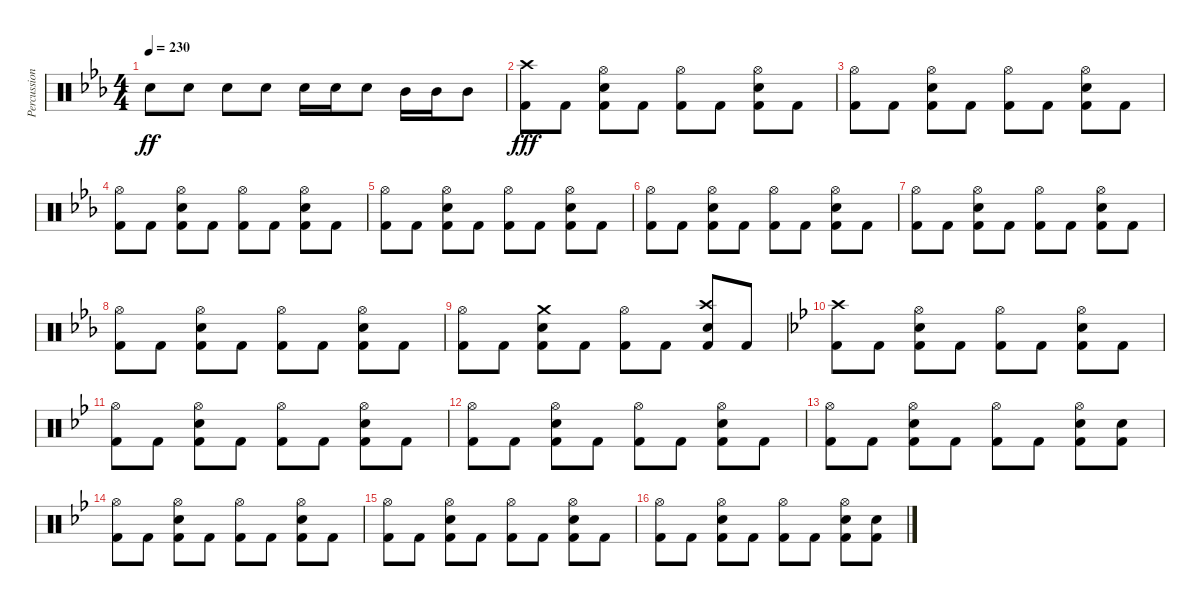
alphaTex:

\track ("Percussion" "Percussion") {instrument percussion}
\staff {score}
\articulation defaults
\ts (4 4)
\tempo 230
\clef neutral
\ks cminor "Electric Snare (hit)".8{dy ff} "Electric Snare (hit)".8 "Electric Snare (hit)".8 "Electric Snare (hit)".8 "Electric Snare (hit)".16 "Electric Snare (hit)".16 "Electric Snare (hit)".8 "Mid Tom (hit)".16 "Mid Tom (hit)".16 "Mid Tom (hit)".8
|
("Crash high (hit)" "Kick (hit) 2").8{dy fff} "Kick (hit) 2".8 ("Hi-Hat (open)" "Electric Snare (hit)" "Kick (hit) 2").8 "Kick (hit) 2".8 ("Hi-Hat (open)" "Kick (hit) 2").8 "Kick (hit) 2".8 ("Hi-Hat (open)" "Electric Snare (hit)" "Kick (hit) 2").8 "Kick (hit) 2".8 |
("Hi-Hat (open)" "Kick (hit) 2").8 "Kick (hit) 2".8 ("Hi-Hat (open)" "Electric Snare (hit)" "Kick (hit) 2").8 "Kick (hit) 2".8 ("Hi-Hat (open)" "Kick (hit) 2").8 "Kick (hit) 2".8 ("Hi-Hat (open)" "Electric Snare (hit)" "Kick (hit) 2").8 "Kick (hit) 2".8 |
("Hi-Hat (open)" "Kick (hit) 2").8 "Kick (hit) 2".8 ("Hi-Hat (open)" "Electric Snare (hit)" "Kick (hit) 2").8 "Kick (hit) 2".8 ("Hi-Hat (open)" "Kick (hit) 2").8 "Kick (hit) 2".8 ("Hi-Hat (open)" "Electric Snare (hit)" "Kick (hit) 2").8 "Kick (hit) 2".8 |
("Hi-Hat (open)" "Kick (hit) 2").8 "Kick (hit) 2".8 ("Hi-Hat (open)" "Electric Snare (hit)" "Kick (hit) 2").8 "Kick (hit) 2".8 ("Hi-Hat (open)" "Kick (hit) 2").8 "Kick (hit) 2".8 ("Hi-Hat (open)" "Electric Snare (hit)" "Kick (hit) 2").8 "Kick (hit) 2".8 |
("Hi-Hat (open)" "Kick (hit) 2").8 "Kick (hit) 2".8 ("Hi-Hat (open)" "Electric Snare (hit)" "Kick (hit) 2").8 "Kick (hit) 2".8 ("Hi-Hat (open)" "Kick (hit) 2").8 "Kick (hit) 2".8 ("Hi-Hat (open)" "Electric Snare (hit)" "Kick (hit) 2").8 "Kick (hit) 2".8 |
("Hi-Hat (open)" "Kick (hit) 2").8 "Kick (hit) 2".8 ("Hi-Hat (open)" "Electric Snare (hit)" "Kick (hit) 2").8 "Kick (hit) 2".8 ("Hi-Hat (open)" "Kick (hit) 2").8 "Kick (hit) 2".8 ("Hi-Hat (open)" "Electric Snare (hit)" "Kick (hit) 2").8 "Kick (hit) 2".8 |
("Hi-Hat (open)" "Kick (hit) 2").8 "Kick (hit) 2".8 ("Hi-Hat (open)" "Electric Snare (hit)" "Kick (hit) 2").8 "Kick (hit) 2".8 ("Hi-Hat (open)" "Kick (hit) 2").8 "Kick (hit) 2".8 ("Hi-Hat (open)" "Electric Snare (hit)" "Kick (hit) 2").8 "Kick (hit) 2".8 |
("Hi-Hat (open)" "Kick (hit) 2").8 "Kick (hit) 2".8 ("Crash medium (hit)" "Electric Snare (hit)" "Kick (hit) 2").8 "Kick (hit) 2".8 ("Hi-Hat (open)" "Kick (hit) 2").8 "Kick (hit) 2".8 ("Crash high (hit)" "Electric Snare (hit)" "Kick (hit) 2").8 "Kick (hit) 2".8 |
\ks gminor
("Crash high (hit)" "Kick (hit) 2").8 "Kick (hit) 2".8 ("Hi-Hat (open)" "Electric Snare (hit)" "Kick (hit) 2").8 "Kick (hit) 2".8 ("Hi-Hat (open)" "Kick (hit) 2").8 "Kick (hit) 2".8 ("Hi-Hat (open)" "Electric Snare (hit)" "Kick (hit) 2").8 "Kick (hit) 2".8 |
("Hi-Hat (open)" "Kick (hit) 2").8 "Kick (hit) 2".8 ("Hi-Hat (open)" "Electric Snare (hit)" "Kick (hit) 2").8 "Kick (hit) 2".8 ("Hi-Hat (open)" "Kick (hit) 2").8 "Kick (hit) 2".8 ("Hi-Hat (open)" "Electric Snare (hit)" "Kick (hit) 2").8 "Kick (hit) 2".8 |
("Hi-Hat (open)" "Kick (hit) 2").8 "Kick (hit) 2".8 ("Hi-Hat (open)" "Electric Snare (hit)" "Kick (hit) 2").8 "Kick (hit) 2".8 ("Hi-Hat (open)" "Kick (hit) 2").8 "Kick (hit) 2".8 ("Hi-Hat (open)" "Electric Snare (hit)" "Kick (hit) 2").8 "Kick (hit) 2".8 |
("Hi-Hat (open)" "Kick (hit) 2").8 "Kick (hit) 2".8 ("Hi-Hat (open)" "Electric Snare (hit)" "Kick (hit) 2").8 "Kick (hit) 2".8 ("Hi-Hat (open)" "Kick (hit) 2").8 "Kick (hit) 2".8 ("Hi-Hat (open)" "Electric Snare (hit)" "Kick (hit) 2").8 ("Electric Snare (hit)" "Kick (hit) 2").8 |
("Hi-Hat (open)" "Kick (hit) 2").8 "Kick (hit) 2".8 ("Hi-Hat (open)" "Electric Snare (hit)" "Kick (hit) 2").8 "Kick (hit) 2".8 ("Hi-Hat (open)" "Kick (hit) 2").8 "Kick (hit) 2".8 ("Hi-Hat (open)" "Electric Snare (hit)" "Kick (hit) 2").8 "Kick (hit) 2".8 |
("Hi-Hat (open)" "Kick (hit) 2").8 "Kick (hit) 2".8 ("Hi-Hat (open)" "Electric Snare (hit)" "Kick (hit) 2").8 "Kick (hit) 2".8 ("Hi-Hat (open)" "Kick (hit) 2").8 "Kick (hit) 2".8 ("Hi-Hat (open)" "Electric Snare (hit)" "Kick (hit) 2").8 "Kick (hit) 2".8 |
("Hi-Hat (open)" "Kick (hit) 2").8 "Kick (hit) 2".8 ("Hi-Hat (open)" "Electric Snare (hit)" "Kick (hit) 2").8 "Kick (hit) 2".8 ("Hi-Hat (open)" "Kick (hit) 2").8 "Kick (hit) 2".8 ("Hi-Hat (open)" "Electric Snare (hit)" "Kick (hit) 2").8 ("Electric Snare (hit)" "Kick (hit) 2").8
